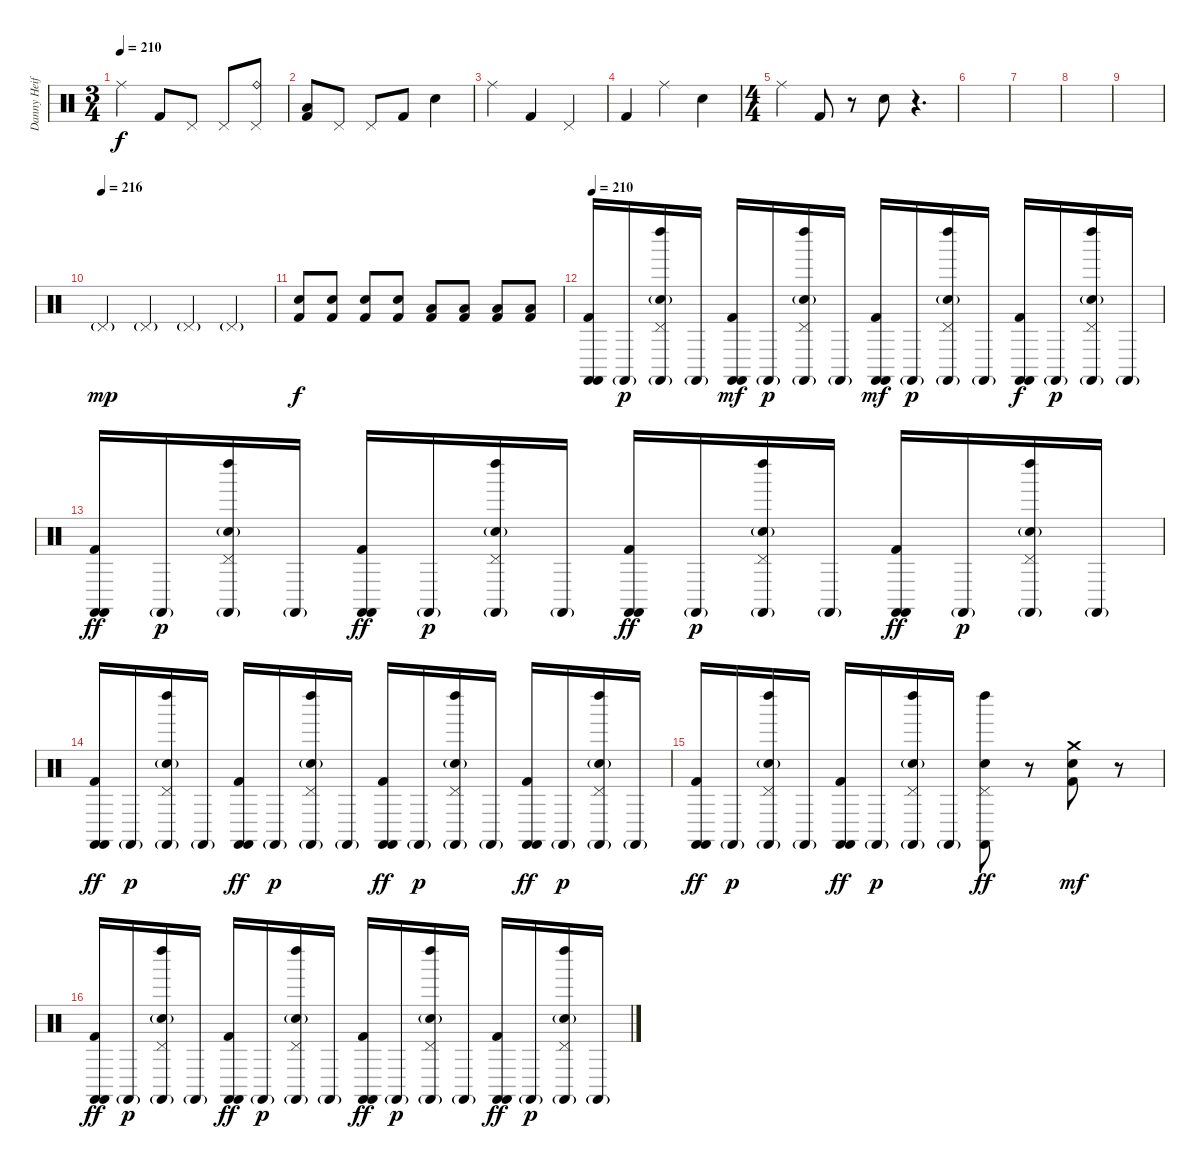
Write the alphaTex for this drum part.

\track ("Danny Heifetz - Drums" "Danny Heif") {instrument percussion}
\staff {score}
\articulation defaults
\ts (3 4)
\tempo 210
\clef neutral
\ks c "Ride (middle)".4{dy f} "Kick (hit) 2".8 "Pedal Hi-Hat (hit)".8 "Pedal Hi-Hat (hit)".8
("Ride (bell)" "Pedal Hi-Hat (hit)").8 |
("Low Tom (hit)" "Kick (hit) 2").8 "Pedal Hi-Hat (hit)".8 "Pedal Hi-Hat (hit)".8 "Kick (hit) 2".8 "Electric Snare (hit)".4 |
"Ride (middle)".4 "Kick (hit) 2".4 "Pedal Hi-Hat (hit)".4 |
"Kick (hit) 2".4 "Ride (middle)".4 "Electric Snare (hit)".4 |
\ts (4 4)
"Ride (middle)".4 "Kick (hit) 2".8 r.8 "Electric Snare (hit)".8 r.4{d} |
|
|
|
|
\tempo (216)
"Pedal Hi-Hat (hit)"{g}.4{dy mp volume 14} "Pedal Hi-Hat (hit)"{g}.4 "Pedal Hi-Hat (hit)"{g}.4 "Pedal Hi-Hat (hit)"{g}.4 |
("Electric Snare (hit)" "Kick (hit) 2").8{dy f} ("Electric Snare (hit)" "Kick (hit) 2").8 ("Electric Snare (hit)" "Kick (hit) 2").8 ("Electric Snare (hit)" "Kick (hit) 2").8 ("Low Floor Tom (hit)" "Kick (hit) 2").8 ("Low Floor Tom (hit)" "Kick (hit) 2").8 ("Low Floor Tom (hit)" "Kick (hit) 2").8 ("Low Floor Tom (hit)" "Kick (hit) 2").8 |
\tempo 210
("Kick (hit) 2" "Castanets (hit)" "Castanets (hit)").16{volume 16} "Castanets (hit)"{g}.16{dy p} ("Left Maraca (hit)" "Pedal Hi-Hat (hit)" "Electric Snare (hit)"{g} "Castanets (hit)"{g}).16 "Castanets (hit)"{g}.16 ("Kick (hit) 2" "Castanets (hit)" "Castanets (hit)").16{dy mf} "Castanets (hit)"{g}.16{dy p} ("Left Maraca (hit)" "Pedal Hi-Hat (hit)" "Electric Snare (hit)"{g} "Castanets (hit)"{g}).16 "Castanets (hit)"{g}.16 ("Kick (hit) 2" "Castanets (hit)" "Castanets (hit)").16{dy mf} "Castanets (hit)"{g}.16{dy p} ("Left Maraca (hit)" "Pedal Hi-Hat (hit)" "Electric Snare (hit)"{g} "Castanets (hit)"{g}).16 "Castanets (hit)"{g}.16 ("Kick (hit) 2" "Castanets (hit)" "Castanets (hit)").16{dy f} "Castanets (hit)"{g}.16{dy p} ("Left Maraca (hit)" "Pedal Hi-Hat (hit)" "Electric Snare (hit)"{g} "Castanets (hit)"{g}).16 "Castanets (hit)"{g}.16 |
("Kick (hit) 2" "Castanets (hit)" "Castanets (hit)").16{dy ff} "Castanets (hit)"{g}.16{dy p} ("Left Maraca (hit)" "Pedal Hi-Hat (hit)" "Electric Snare (hit)"{g} "Castanets (hit)"{g}).16 "Castanets (hit)"{g}.16 ("Kick (hit) 2" "Castanets (hit)" "Castanets (hit)").16{dy ff} "Castanets (hit)"{g}.16{dy p} ("Left Maraca (hit)" "Pedal Hi-Hat (hit)" "Electric Snare (hit)"{g} "Castanets (hit)"{g}).16 "Castanets (hit)"{g}.16 ("Kick (hit) 2" "Castanets (hit)" "Castanets (hit)").16{dy ff} "Castanets (hit)"{g}.16{dy p} ("Left Maraca (hit)" "Pedal Hi-Hat (hit)" "Electric Snare (hit)"{g} "Castanets (hit)"{g}).16 "Castanets (hit)"{g}.16 ("Kick (hit) 2" "Castanets (hit)" "Castanets (hit)").16{dy ff} "Castanets (hit)"{g}.16{dy p} ("Left Maraca (hit)" "Pedal Hi-Hat (hit)" "Electric Snare (hit)"{g} "Castanets (hit)"{g}).16 "Castanets (hit)"{g}.16 |
("Kick (hit) 2" "Castanets (hit)" "Castanets (hit)").16{dy ff} "Castanets (hit)"{g}.16{dy p} ("Left Maraca (hit)" "Pedal Hi-Hat (hit)" "Electric Snare (hit)"{g} "Castanets (hit)"{g}).16 "Castanets (hit)"{g}.16 ("Kick (hit) 2" "Castanets (hit)" "Castanets (hit)").16{dy ff} "Castanets (hit)"{g}.16{dy p} ("Left Maraca (hit)" "Pedal Hi-Hat (hit)" "Electric Snare (hit)"{g} "Castanets (hit)"{g}).16 "Castanets (hit)"{g}.16 ("Kick (hit) 2" "Castanets (hit)" "Castanets (hit)").16{dy ff} "Castanets (hit)"{g}.16{dy p} ("Left Maraca (hit)" "Pedal Hi-Hat (hit)" "Electric Snare (hit)"{g} "Castanets (hit)"{g}).16 "Castanets (hit)"{g}.16 ("Kick (hit) 2" "Castanets (hit)" "Castanets (hit)").16{dy ff} "Castanets (hit)"{g}.16{dy p} ("Left Maraca (hit)" "Pedal Hi-Hat (hit)" "Electric Snare (hit)"{g} "Castanets (hit)"{g}).16 "Castanets (hit)"{g}.16 |
("Kick (hit) 2" "Castanets (hit)" "Castanets (hit)").16{dy ff} "Castanets (hit)"{g}.16{dy p} ("Left Maraca (hit)" "Pedal Hi-Hat (hit)" "Electric Snare (hit)"{g} "Castanets (hit)"{g}).16 "Castanets (hit)"{g}.16 ("Kick (hit) 2" "Castanets (hit)" "Castanets (hit)").16{dy ff} "Castanets (hit)"{g}.16{dy p} ("Left Maraca (hit)" "Pedal Hi-Hat (hit)" "Electric Snare (hit)"{g} "Castanets (hit)"{g}).16 "Castanets (hit)"{g}.16 ("Left Maraca (hit)" "Pedal Hi-Hat (hit)" "Electric Snare (hit)" "Castanets (hit)").8{dy ff} r.8 ("Crash medium (hit)" "Electric Snare (hit)" "Kick (hit) 2").8{dy mf} r.8 |
("Kick (hit) 2" "Castanets (hit)" "Castanets (hit)").16{dy ff} "Castanets (hit)"{g}.16{dy p} ("Left Maraca (hit)" "Pedal Hi-Hat (hit)" "Electric Snare (hit)"{g} "Castanets (hit)"{g}).16 "Castanets (hit)"{g}.16 ("Kick (hit) 2" "Castanets (hit)" "Castanets (hit)").16{dy ff} "Castanets (hit)"{g}.16{dy p} ("Left Maraca (hit)" "Pedal Hi-Hat (hit)" "Electric Snare (hit)"{g} "Castanets (hit)"{g}).16 "Castanets (hit)"{g}.16 ("Kick (hit) 2" "Castanets (hit)" "Castanets (hit)").16{dy ff} "Castanets (hit)"{g}.16{dy p} ("Left Maraca (hit)" "Pedal Hi-Hat (hit)" "Electric Snare (hit)"{g} "Castanets (hit)"{g}).16 "Castanets (hit)"{g}.16 ("Kick (hit) 2" "Castanets (hit)" "Castanets (hit)").16{dy ff} "Castanets (hit)"{g}.16{dy p} ("Left Maraca (hit)" "Pedal Hi-Hat (hit)" "Electric Snare (hit)"{g} "Castanets (hit)"{g}).16 "Castanets (hit)"{g}.16
